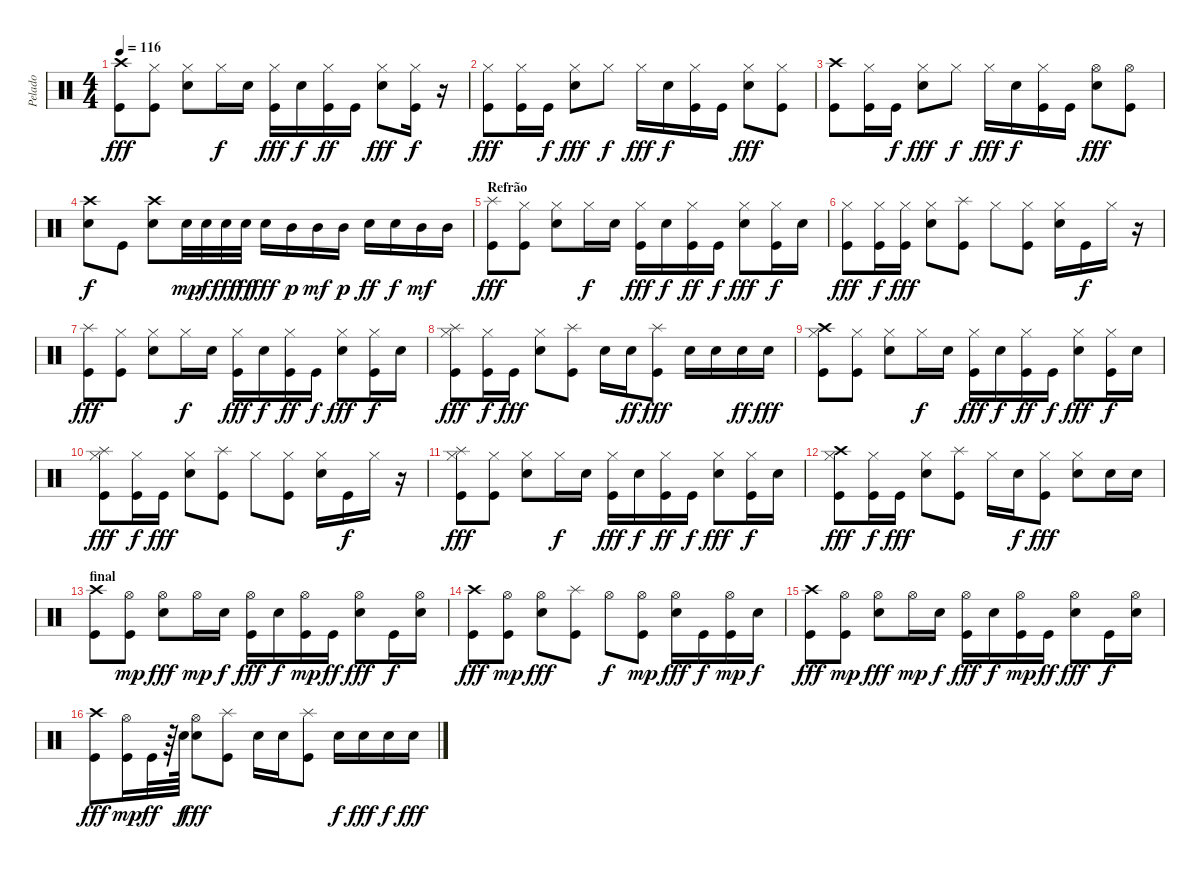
\track ("Pelado" "Pelado") {instrument percussion}
\staff {score}
\articulation defaults
\ts (4 4)
\tempo 116
\clef neutral
\ks c
("Kick (hit)" "Crash high (hit)").8{dy fff} ("Kick (hit)" "Hi-Hat (closed)").8 ("Electric Snare (hit)" "Hi-Hat (closed)").8 "Hi-Hat (closed)".16{dy f} "Electric Snare (hit)".16 ("Kick (hit)" "Hi-Hat (closed)").16{dy fff} "Electric Snare (hit)".16{dy f} ("Kick (hit)" "Hi-Hat (closed)").16{dy ff} "Kick (hit)".16 ("Electric Snare (hit)" "Hi-Hat (closed)").8{dy fff} ("Kick (hit)" "Hi-Hat (closed)").16{dy f} r.16 |
("Kick (hit)" "Hi-Hat (closed)").8{dy fff} ("Kick (hit)" "Hi-Hat (closed)").16 "Kick (hit)".16{dy f} ("Electric Snare (hit)" "Hi-Hat (closed)").8{dy fff} "Hi-Hat (closed)".8{dy f} "Hi-Hat (closed)".16{dy fff} "Electric Snare (hit)".16{dy f} ("Kick (hit)" "Hi-Hat (closed)").16 "Kick (hit)".16 ("Electric Snare (hit)" "Hi-Hat (closed)").8{dy fff} ("Kick (hit)" "Hi-Hat (closed)").8 |
("Kick (hit)" "Crash high (hit)").8 ("Kick (hit)" "Hi-Hat (closed)").16 "Kick (hit)".16{dy f} ("Electric Snare (hit)" "Hi-Hat (closed)").8{dy fff} "Hi-Hat (closed)".8{dy f} "Hi-Hat (closed)".16{dy fff} "Electric Snare (hit)".16{dy f} ("Kick (hit)" "Hi-Hat (closed)").16 "Kick (hit)".16 ("Electric Snare (hit)" "Hi-Hat (open)").8{dy fff} ("Kick (hit)" "Hi-Hat (open)").8 |
("Electric Snare (hit)" "Crash high (hit)").8{dy f} "Kick (hit)".8 ("Electric Snare (hit)" "Crash high (hit)").8 "Electric Snare (hit)".32{dy mp} "Electric Snare (hit)".32{dy f} "Electric Snare (hit)".32{dy fff} "Electric Snare (hit)".32{dy ff} "Electric Snare (hit)".16{dy fff} "Mid Tom (hit)".16{dy p} "Mid Tom (hit)".16{dy mf} "Mid Tom (hit)".16{dy p} "Electric Snare (hit)".16{dy ff} "Electric Snare (hit)".16{dy f} "Mid Tom (hit)".16{dy mf} "Mid Tom (hit)".16 |
\section ("" "Refrão")
("Kick (hit)" "Splash (hit)").8{dy fff} ("Kick (hit)" "Hi-Hat (closed)").8 ("Electric Snare (hit)" "Hi-Hat (closed)").8 "Hi-Hat (closed)".16{dy f} "Electric Snare (hit)".16 ("Kick (hit)" "Hi-Hat (closed)").16{dy fff} "Electric Snare (hit)".16{dy f} ("Kick (hit)" "Hi-Hat (closed)").16{dy ff} "Kick (hit)".16{dy f} ("Electric Snare (hit)" "Hi-Hat (closed)").8{dy fff} ("Kick (hit)" "Hi-Hat (closed)").16{dy f} "Electric Snare (hit)".16 |
("Kick (hit)" "Hi-Hat (closed)").8{dy fff} ("Kick (hit)" "Hi-Hat (closed)").16{dy f} ("Kick (hit)" "Hi-Hat (closed)").16{dy fff} ("Electric Snare (hit)" "Hi-Hat (closed)").8 ("Kick (hit)" "Splash (hit)").8 "Hi-Hat (closed)".8 ("Kick (hit)" "Hi-Hat (closed)").8 ("Electric Snare (hit)" "Hi-Hat (closed)").16 "Kick (hit)".16{dy f} "Hi-Hat (closed)".16 r.16 |
("Kick (hit)" "Splash (hit)").8{dy fff} ("Kick (hit)" "Hi-Hat (closed)").8 ("Electric Snare (hit)" "Hi-Hat (closed)").8 "Hi-Hat (closed)".16{dy f} "Electric Snare (hit)".16 ("Kick (hit)" "Hi-Hat (closed)").16{dy fff} "Electric Snare (hit)".16{dy f} ("Kick (hit)" "Hi-Hat (closed)").16{dy ff} "Kick (hit)".16{dy f} ("Electric Snare (hit)" "Hi-Hat (closed)").8{dy fff} ("Kick (hit)" "Hi-Hat (closed)").16{dy f} "Electric Snare (hit)".16 |
("Kick (hit)" "Hi-Hat (closed)" "Splash (hit)").8{dy fff} ("Kick (hit)" "Hi-Hat (closed)").16{dy f} "Kick (hit)".16{dy fff} ("Electric Snare (hit)" "Hi-Hat (closed)").8 ("Kick (hit)" "Splash (hit)").8 "Electric Snare (hit)".16 "Electric Snare (hit)".16{dy ff} ("Kick (hit)" "Splash (hit)").8{dy fff} "Electric Snare (hit)".16 "Electric Snare (hit)".16 "Electric Snare (hit)".16{dy ff} "Electric Snare (hit)".16{dy fff} |
("Kick (hit)" "Hi-Hat (closed)" "Crash high (hit)").8 ("Kick (hit)" "Hi-Hat (closed)").8 ("Electric Snare (hit)" "Hi-Hat (closed)").8 "Hi-Hat (closed)".16{dy f} "Electric Snare (hit)".16 ("Kick (hit)" "Hi-Hat (closed)").16{dy fff} "Electric Snare (hit)".16{dy f} ("Kick (hit)" "Hi-Hat (closed)").16{dy ff} "Kick (hit)".16{dy f} ("Electric Snare (hit)" "Hi-Hat (closed)").8{dy fff} ("Kick (hit)" "Hi-Hat (closed)").16{dy f} "Electric Snare (hit)".16 |
("Kick (hit)" "Hi-Hat (closed)" "Splash (hit)").8{dy fff} ("Kick (hit)" "Hi-Hat (closed)").16{dy f} "Kick (hit)".16{dy fff} ("Electric Snare (hit)" "Hi-Hat (closed)").8 ("Kick (hit)" "Splash (hit)").8 "Hi-Hat (closed)".8 ("Kick (hit)" "Hi-Hat (closed)").8 ("Electric Snare (hit)" "Hi-Hat (closed)").16 "Kick (hit)".16{dy f} "Hi-Hat (closed)".16 r.16 |
("Kick (hit)" "Hi-Hat (closed)" "Splash (hit)").8{dy fff} ("Kick (hit)" "Hi-Hat (closed)").8 ("Electric Snare (hit)" "Hi-Hat (closed)").8 "Hi-Hat (closed)".16{dy f} "Electric Snare (hit)".16 ("Kick (hit)" "Hi-Hat (closed)").16{dy fff} "Electric Snare (hit)".16{dy f} ("Kick (hit)" "Hi-Hat (closed)").16{dy ff} "Kick (hit)".16{dy f} ("Electric Snare (hit)" "Hi-Hat (closed)").8{dy fff} ("Kick (hit)" "Hi-Hat (closed)").16{dy f} "Electric Snare (hit)".16 |
("Kick (hit)" "Hi-Hat (closed)" "Crash high (hit)").8{dy fff} ("Kick (hit)" "Hi-Hat (closed)").16{dy f} "Kick (hit)".16{dy fff} ("Electric Snare (hit)" "Hi-Hat (closed)").8 ("Kick (hit)" "Splash (hit)").8 "Hi-Hat (closed)".16 "Electric Snare (hit)".16{dy f} ("Kick (hit)" "Hi-Hat (closed)").8{dy fff} ("Electric Snare (hit)" "Hi-Hat (closed)").8 "Electric Snare (hit)".16 "Electric Snare (hit)".16 |
\section ("" "final")
("Kick (hit)" "Crash high (hit)").8 ("Kick (hit)" "Hi-Hat (open)").8{dy mp} ("Electric Snare (hit)" "Hi-Hat (open)").8{dy fff} "Hi-Hat (open)".16{dy mp} "Electric Snare (hit)".16{dy f} ("Kick (hit)" "Hi-Hat (open)").16{dy fff} "Electric Snare (hit)".16{dy f} ("Kick (hit)" "Hi-Hat (open)").16{dy mp} "Kick (hit)".16{dy ff} ("Electric Snare (hit)" "Hi-Hat (open)").8{dy fff} "Kick (hit)".16{dy f} ("Electric Snare (hit)" "Hi-Hat (open)").16 |
("Kick (hit)" "Crash high (hit)").8{dy fff} ("Kick (hit)" "Hi-Hat (open)").8{dy mp} ("Electric Snare (hit)" "Hi-Hat (open)").8{dy fff} ("Kick (hit)" "Splash (hit)").8 "Hi-Hat (open)".8{dy f} ("Kick (hit)" "Hi-Hat (open)").8{dy mp} ("Electric Snare (hit)" "Hi-Hat (open)").16{dy fff} "Kick (hit)".16{dy f} ("Kick (hit)" "Hi-Hat (open)").16{dy mp} "Electric Snare (hit)".16{dy f} |
("Kick (hit)" "Crash high (hit)").8{dy fff} ("Kick (hit)" "Hi-Hat (open)").8{dy mp} ("Electric Snare (hit)" "Hi-Hat (open)").8{dy fff} "Hi-Hat (open)".16{dy mp} "Electric Snare (hit)".16{dy f} ("Kick (hit)" "Hi-Hat (open)").16{dy fff} "Electric Snare (hit)".16{dy f} ("Kick (hit)" "Hi-Hat (open)").16{dy mp} "Kick (hit)".16{dy ff} ("Electric Snare (hit)" "Hi-Hat (open)").8{dy fff} "Kick (hit)".16{dy f} ("Electric Snare (hit)" "Hi-Hat (open)").16 |
("Kick (hit)" "Crash high (hit)").8{dy fff} ("Kick (hit)" "Hi-Hat (open)").16{dy mp} "Kick (hit)".32{dy ff} r.64 "Electric Snare (hit)".64{dy f} ("Electric Snare (hit)" "Hi-Hat (open)").8{dy fff} ("Kick (hit)" "Splash (hit)").8 "Electric Snare (hit)".16 "Electric Snare (hit)".16 ("Kick (hit)" "Splash (hit)").8 "Electric Snare (hit)".16{dy f} "Electric Snare (hit)".16{dy fff} "Electric Snare (hit)".16{dy f} "Electric Snare (hit)".16{dy fff}
